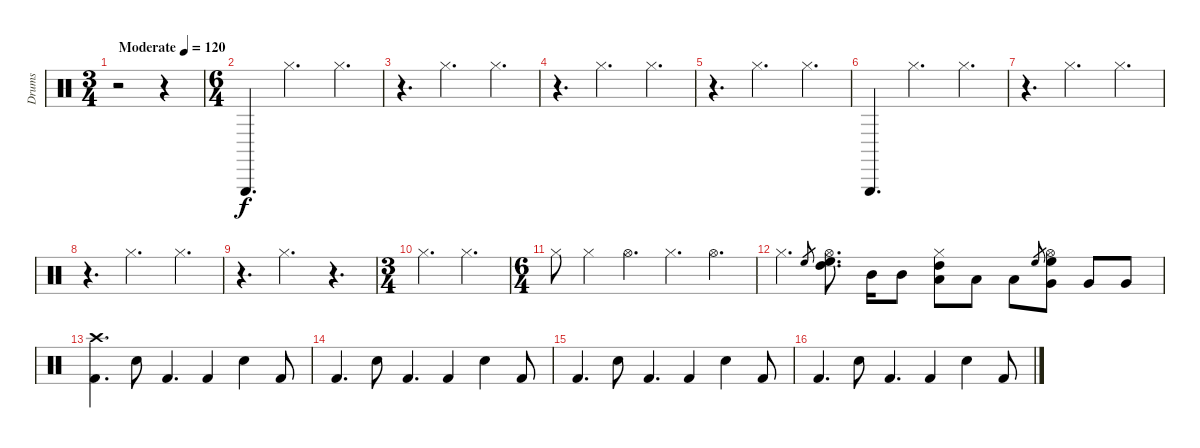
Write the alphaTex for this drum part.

\track ("Drums" "Drums") {instrument percussion}
\staff {score}
\articulation defaults
\ts (3 4)
\tempo (120 "Moderate")
\clef neutral
\ks c
r.2{dy f} r.4 |
\ts (6 4)
"Triangle (hit)".4{d} "Hi-Hat (closed)".2{d} "Hi-Hat (closed)".4{d} |
r.4{d} "Hi-Hat (closed)".2{d} "Hi-Hat (closed)".4{d} |
r.4{d} "Hi-Hat (closed)".2{d} "Hi-Hat (closed)".4{d} |
r.4{d} "Hi-Hat (closed)".2{d} "Hi-Hat (closed)".4{d} |
"Triangle (hit)".4{d} "Hi-Hat (closed)".2{d} "Hi-Hat (closed)".4{d} |
r.4{d} "Hi-Hat (closed)".2{d} "Hi-Hat (closed)".4{d} |
r.4{d} "Hi-Hat (closed)".2{d} "Hi-Hat (closed)".4{d} |
r.4{d} "Hi-Hat (closed)".2{d} r.4{d} |
\ts (3 4)
"Hi-Hat (closed)".4{d} "Hi-Hat (closed)".4{d} |
\ts (6 4)
"Hi-Hat (closed)".8 "Hi-Hat (closed)".4 "Hi-Hat (open)".4{d} "Hi-Hat (closed)".4{d} "Hi-Hat (open)".4{d} |
"Hi-Hat (closed)".4{d} "High Floor Tom (hit)".8{gr} ("High Floor Tom (hit)" "Hi-Hat (open)" "High Tom (hit)").8{d} "Mid Tom (hit)".16 "Mid Tom (hit)".8 ("High Tom (hit)" "Hi-Hat (closed)" "Low Tom (hit)").8 "Low Tom (hit)".8 "Low Tom (hit)".8 "High Floor Tom (hit)".8{gr} ("High Floor Tom (hit)" "Hi-Hat (open)" "Very Low Tom (hit)").8 "Very Low Tom (hit)".8 "Very Low Tom (hit)".8 |
("Crash high (hit)" "Kick (hit) 2").4{d} "Snare (hit) 2".8 "Kick (hit) 2".4{d} "Kick (hit) 2".4 "Snare (hit) 2".4 "Kick (hit) 2".8 |
"Kick (hit) 2".4{d} "Snare (hit) 2".8 "Kick (hit) 2".4{d} "Kick (hit) 2".4 "Snare (hit) 2".4 "Kick (hit) 2".8 |
"Kick (hit) 2".4{d} "Snare (hit) 2".8 "Kick (hit) 2".4{d} "Kick (hit) 2".4 "Snare (hit) 2".4 "Kick (hit) 2".8 |
"Kick (hit) 2".4{d} "Snare (hit) 2".8 "Kick (hit) 2".4{d} "Kick (hit) 2".4 "Snare (hit) 2".4 "Kick (hit) 2".8
